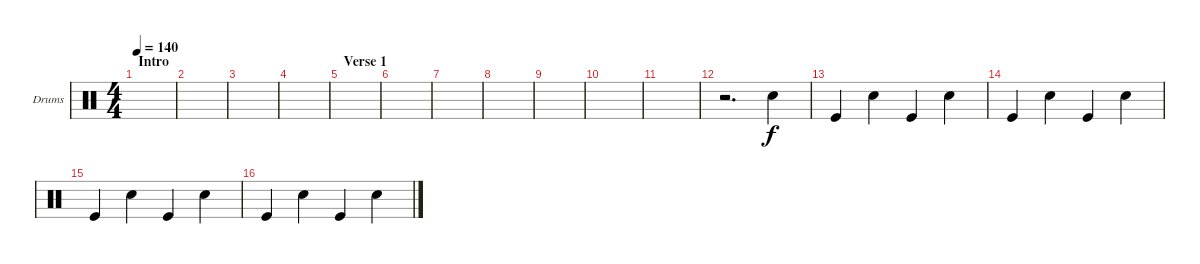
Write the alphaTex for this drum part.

\defaultSystemsLayout 4
\bracketExtendMode groupsimilarinstruments
\firstSystemTrackNameOrientation horizontal
\otherSystemsTrackNameOrientation horizontal
\track ("Drumkit" "Drums") {instrument percussion}
\staff {score}
\articulation defaults
\ts (4 4)
\section ("" "Intro")
\tempo 140
\clef neutral
\ks c
|
|
|
|
\section ("" "Verse 1")
|
|
|
|
|
|
|
r.2{d} "Snare (hit) 2".4 |
"Kick (hit)".4 "Snare (hit) 2".4 "Kick (hit)".4 "Snare (hit) 2".4 |
"Kick (hit)".4 "Snare (hit) 2".4 "Kick (hit)".4 "Snare (hit) 2".4 |
"Kick (hit)".4 "Snare (hit) 2".4 "Kick (hit)".4 "Snare (hit) 2".4 |
"Kick (hit)".4 "Snare (hit) 2".4 "Kick (hit)".4 "Snare (hit) 2".4
